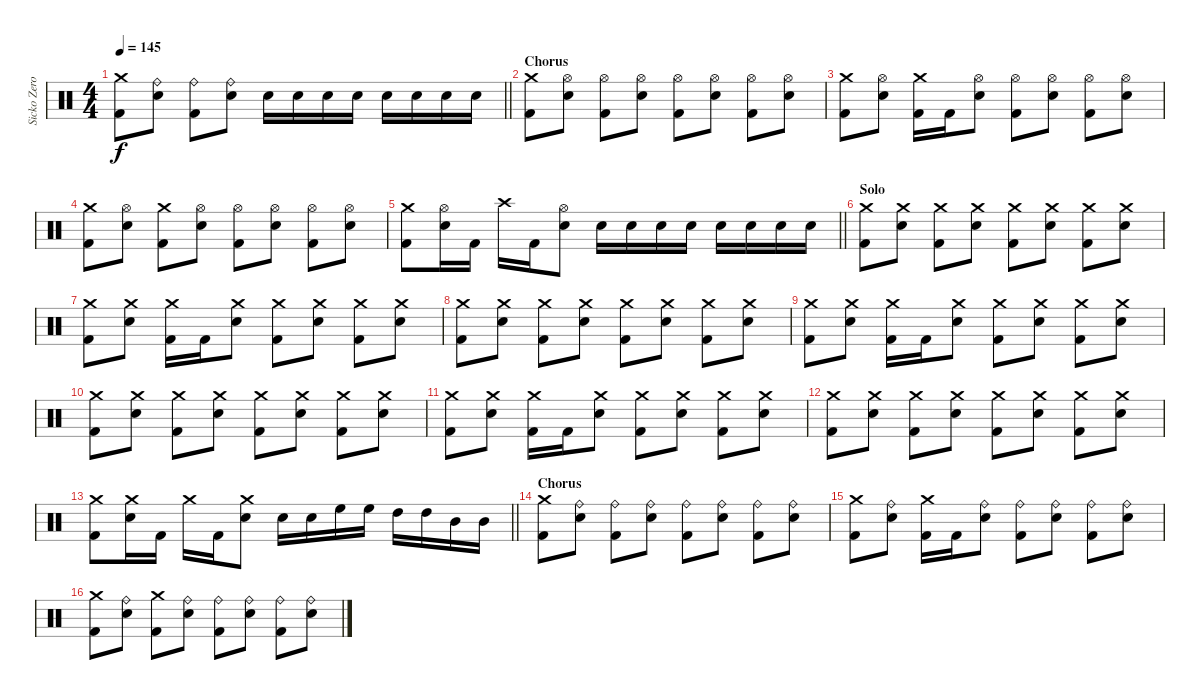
\track ("Sicko Zero - Drums" "Sicko Zero") {instrument percussion}
\staff {score}
\articulation defaults
\ts (4 4)
\tempo 145
\clef neutral
\barLineRight lightlight
\ks c
("Crash medium (hit)" "Kick (hit) 2").8{dy f} ("Ride (bell)" "Electric Snare (hit)").8 ("Ride (bell)" "Kick (hit) 2").8 ("Ride (bell)" "Electric Snare (hit)").8 "Electric Snare (hit)".16 "Electric Snare (hit)".16 "Electric Snare (hit)".16 "Electric Snare (hit)".16 "Electric Snare (hit)".16 "Electric Snare (hit)".16 "Electric Snare (hit)".16 "Electric Snare (hit)".16 |
\section ("" "Chorus")
("Crash medium (hit)" "Kick (hit) 2").8 ("Hi-Hat (open)" "Electric Snare (hit)").8 ("Hi-Hat (open)" "Kick (hit) 2").8 ("Hi-Hat (open)" "Electric Snare (hit)").8 ("Hi-Hat (open)" "Kick (hit) 2").8 ("Hi-Hat (open)" "Electric Snare (hit)").8 ("Hi-Hat (open)" "Kick (hit) 2").8 ("Hi-Hat (open)" "Electric Snare (hit)").8 |
("Crash medium (hit)" "Kick (hit) 2").8 ("Hi-Hat (open)" "Electric Snare (hit)").8 ("Crash medium (hit)" "Kick (hit) 2").16 "Kick (hit) 2".16 ("Hi-Hat (open)" "Electric Snare (hit)").8 ("Hi-Hat (open)" "Kick (hit) 2").8 ("Hi-Hat (open)" "Electric Snare (hit)").8 ("Hi-Hat (open)" "Kick (hit) 2").8 ("Hi-Hat (open)" "Electric Snare (hit)").8 |
("Crash medium (hit)" "Kick (hit) 2").8 ("Hi-Hat (open)" "Electric Snare (hit)").8 ("Crash medium (hit)" "Kick (hit) 2").8 ("Hi-Hat (open)" "Electric Snare (hit)").8 ("Hi-Hat (open)" "Kick (hit) 2").8 ("Hi-Hat (open)" "Electric Snare (hit)").8 ("Hi-Hat (open)" "Kick (hit) 2").8 ("Hi-Hat (open)" "Electric Snare (hit)").8 |
\barLineRight lightlight
("Crash medium (hit)" "Kick (hit) 2").8 ("Hi-Hat (open)" "Electric Snare (hit)").16 "Kick (hit) 2".16 "Crash high (hit)".16 "Kick (hit) 2".16 ("Hi-Hat (open)" "Electric Snare (hit)").8 "Electric Snare (hit)".16 "Electric Snare (hit)".16 "Electric Snare (hit)".16 "Electric Snare (hit)".16 "Electric Snare (hit)".16 "Electric Snare (hit)".16 "Electric Snare (hit)".16 "Electric Snare (hit)".16 |
\section ("" "Solo")
("Crash medium (hit)" "Kick (hit) 2").8 ("Crash medium (hit)" "Electric Snare (hit)").8 ("Crash medium (hit)" "Kick (hit) 2").8 ("Crash medium (hit)" "Electric Snare (hit)").8 ("Crash medium (hit)" "Kick (hit) 2").8 ("Crash medium (hit)" "Electric Snare (hit)").8 ("Crash medium (hit)" "Kick (hit) 2").8 ("Crash medium (hit)" "Electric Snare (hit)").8 |
("Crash medium (hit)" "Kick (hit) 2").8 ("Crash medium (hit)" "Electric Snare (hit)").8 ("Crash medium (hit)" "Kick (hit) 2").16 "Kick (hit) 2".16 ("Crash medium (hit)" "Electric Snare (hit)").8 ("Crash medium (hit)" "Kick (hit) 2").8 ("Crash medium (hit)" "Electric Snare (hit)").8 ("Crash medium (hit)" "Kick (hit) 2").8 ("Crash medium (hit)" "Electric Snare (hit)").8 |
("Crash medium (hit)" "Kick (hit) 2").8 ("Crash medium (hit)" "Electric Snare (hit)").8 ("Crash medium (hit)" "Kick (hit) 2").8 ("Crash medium (hit)" "Electric Snare (hit)").8 ("Crash medium (hit)" "Kick (hit) 2").8 ("Crash medium (hit)" "Electric Snare (hit)").8 ("Crash medium (hit)" "Kick (hit) 2").8 ("Crash medium (hit)" "Electric Snare (hit)").8 |
("Crash medium (hit)" "Kick (hit) 2").8 ("Crash medium (hit)" "Electric Snare (hit)").8 ("Crash medium (hit)" "Kick (hit) 2").16 "Kick (hit) 2".16 ("Crash medium (hit)" "Electric Snare (hit)").8 ("Crash medium (hit)" "Kick (hit) 2").8 ("Crash medium (hit)" "Electric Snare (hit)").8 ("Crash medium (hit)" "Kick (hit) 2").8 ("Crash medium (hit)" "Electric Snare (hit)").8 |
("Crash medium (hit)" "Kick (hit) 2").8 ("Crash medium (hit)" "Electric Snare (hit)").8 ("Crash medium (hit)" "Kick (hit) 2").8 ("Crash medium (hit)" "Electric Snare (hit)").8 ("Crash medium (hit)" "Kick (hit) 2").8 ("Crash medium (hit)" "Electric Snare (hit)").8 ("Crash medium (hit)" "Kick (hit) 2").8 ("Crash medium (hit)" "Electric Snare (hit)").8 |
("Crash medium (hit)" "Kick (hit) 2").8 ("Crash medium (hit)" "Electric Snare (hit)").8 ("Crash medium (hit)" "Kick (hit) 2").16 "Kick (hit) 2".16 ("Crash medium (hit)" "Electric Snare (hit)").8 ("Crash medium (hit)" "Kick (hit) 2").8 ("Crash medium (hit)" "Electric Snare (hit)").8 ("Crash medium (hit)" "Kick (hit) 2").8 ("Crash medium (hit)" "Electric Snare (hit)").8 |
("Crash medium (hit)" "Kick (hit) 2").8 ("Crash medium (hit)" "Electric Snare (hit)").8 ("Crash medium (hit)" "Kick (hit) 2").8 ("Crash medium (hit)" "Electric Snare (hit)").8 ("Crash medium (hit)" "Kick (hit) 2").8 ("Crash medium (hit)" "Electric Snare (hit)").8 ("Crash medium (hit)" "Kick (hit) 2").8 ("Crash medium (hit)" "Electric Snare (hit)").8 |
\barLineRight lightlight
("Crash medium (hit)" "Kick (hit) 2").8 ("Crash medium (hit)" "Electric Snare (hit)").16 "Kick (hit) 2".16 "Crash medium (hit)".16 "Kick (hit) 2".16 ("Crash medium (hit)" "Electric Snare (hit)").8 "Electric Snare (hit)".16 "Electric Snare (hit)".16 "High Floor Tom (hit)".16 "High Floor Tom (hit)".16 "High Tom (hit)".16 "High Tom (hit)".16 "Mid Tom (hit)".16 "Mid Tom (hit)".16 |
\section ("" "Chorus")
("Crash medium (hit)" "Kick (hit) 2").8 ("Ride (bell)" "Electric Snare (hit)").8 ("Ride (bell)" "Kick (hit) 2").8 ("Ride (bell)" "Electric Snare (hit)").8 ("Ride (bell)" "Kick (hit) 2").8 ("Ride (bell)" "Electric Snare (hit)").8 ("Ride (bell)" "Kick (hit) 2").8 ("Ride (bell)" "Electric Snare (hit)").8 |
("Crash medium (hit)" "Kick (hit) 2").8 ("Ride (bell)" "Electric Snare (hit)").8 ("Crash medium (hit)" "Kick (hit) 2").16 "Kick (hit) 2".16 ("Ride (bell)" "Electric Snare (hit)").8 ("Ride (bell)" "Kick (hit) 2").8 ("Ride (bell)" "Electric Snare (hit)").8 ("Ride (bell)" "Kick (hit) 2").8 ("Ride (bell)" "Electric Snare (hit)").8 |
("Crash medium (hit)" "Kick (hit) 2").8 ("Ride (bell)" "Electric Snare (hit)").8 ("Crash medium (hit)" "Kick (hit) 2").8 ("Ride (bell)" "Electric Snare (hit)").8 ("Ride (bell)" "Kick (hit) 2").8 ("Ride (bell)" "Electric Snare (hit)").8 ("Ride (bell)" "Kick (hit) 2").8 ("Ride (bell)" "Electric Snare (hit)").8
